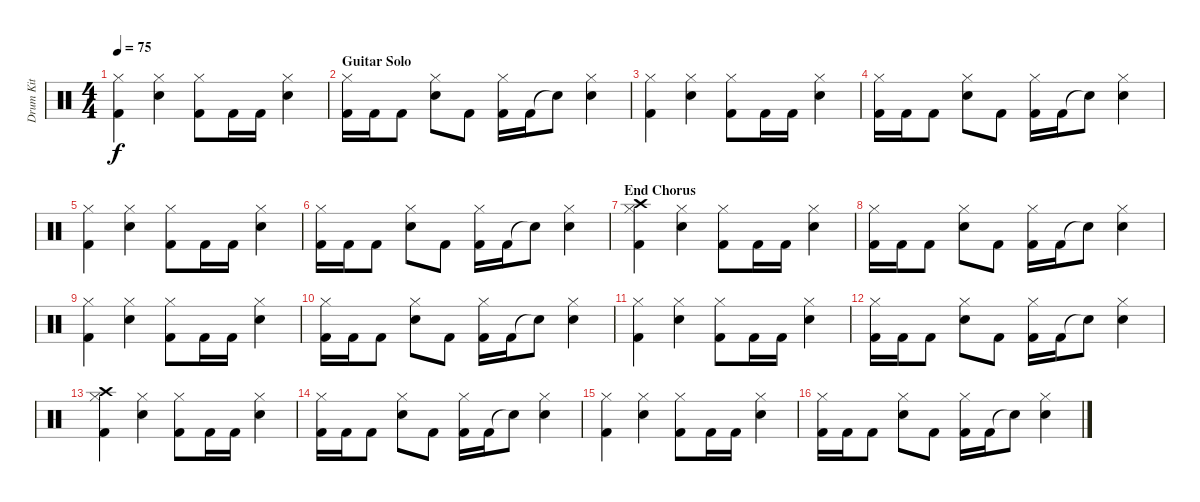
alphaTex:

\track ("Drum Kit" "Drum Kit") {instrument percussion}
\staff {score}
\articulation defaults
\ts (4 4)
\tempo 75
\clef neutral
\ks c
("Kick (hit) 2" "Hi-Hat (closed)").4{dy f} ("Electric Snare (hit)" "Hi-Hat (closed)").4 ("Kick (hit) 2" "Hi-Hat (closed)").8 "Kick (hit) 2".16 "Kick (hit) 2".16 ("Electric Snare (hit)" "Hi-Hat (closed)").4 |
\section ("" "Guitar Solo")
("Kick (hit) 2" "Hi-Hat (closed)").16 "Kick (hit) 2".16 "Kick (hit) 2".8 ("Electric Snare (hit)" "Hi-Hat (closed)").8 "Kick (hit) 2".8 ("Kick (hit) 2" "Hi-Hat (closed)").16 "Kick (hit) 2".16 "Snare (hit)"{t}.8 ("Electric Snare (hit)" "Hi-Hat (closed)").4 |
("Kick (hit) 2" "Hi-Hat (closed)").4 ("Electric Snare (hit)" "Hi-Hat (closed)").4 ("Kick (hit) 2" "Hi-Hat (closed)").8 "Kick (hit) 2".16 "Kick (hit) 2".16 ("Electric Snare (hit)" "Hi-Hat (closed)").4 |
("Kick (hit) 2" "Hi-Hat (closed)").16 "Kick (hit) 2".16 "Kick (hit) 2".8 ("Electric Snare (hit)" "Hi-Hat (closed)").8 "Kick (hit) 2".8 ("Kick (hit) 2" "Hi-Hat (closed)").16 "Kick (hit) 2".16 "Snare (hit)"{t}.8 ("Electric Snare (hit)" "Hi-Hat (closed)").4 |
("Kick (hit) 2" "Hi-Hat (closed)").4 ("Electric Snare (hit)" "Hi-Hat (closed)").4 ("Kick (hit) 2" "Hi-Hat (closed)").8 "Kick (hit) 2".16 "Kick (hit) 2".16 ("Electric Snare (hit)" "Hi-Hat (closed)").4 |
("Kick (hit) 2" "Hi-Hat (closed)").16 "Kick (hit) 2".16 "Kick (hit) 2".8 ("Electric Snare (hit)" "Hi-Hat (closed)").8 "Kick (hit) 2".8 ("Kick (hit) 2" "Hi-Hat (closed)").16 "Kick (hit) 2".16 "Snare (hit)"{t}.8 ("Electric Snare (hit)" "Hi-Hat (closed)").4 |
\section ("" "End Chorus")
("Crash high (hit)" "Kick (hit) 2" "Hi-Hat (closed)").4 ("Electric Snare (hit)" "Hi-Hat (closed)").4 ("Kick (hit) 2" "Hi-Hat (closed)").8 "Kick (hit) 2".16 "Kick (hit) 2".16 ("Electric Snare (hit)" "Hi-Hat (closed)").4 |
("Kick (hit) 2" "Hi-Hat (closed)").16 "Kick (hit) 2".16 "Kick (hit) 2".8 ("Electric Snare (hit)" "Hi-Hat (closed)").8 "Kick (hit) 2".8 ("Kick (hit) 2" "Hi-Hat (closed)").16 "Kick (hit) 2".16 "Snare (hit)"{t}.8 ("Electric Snare (hit)" "Hi-Hat (closed)").4 |
("Kick (hit) 2" "Hi-Hat (closed)").4 ("Electric Snare (hit)" "Hi-Hat (closed)").4 ("Kick (hit) 2" "Hi-Hat (closed)").8 "Kick (hit) 2".16 "Kick (hit) 2".16 ("Electric Snare (hit)" "Hi-Hat (closed)").4 |
("Kick (hit) 2" "Hi-Hat (closed)").16 "Kick (hit) 2".16 "Kick (hit) 2".8 ("Electric Snare (hit)" "Hi-Hat (closed)").8 "Kick (hit) 2".8 ("Kick (hit) 2" "Hi-Hat (closed)").16 "Kick (hit) 2".16 "Snare (hit)"{t}.8 ("Electric Snare (hit)" "Hi-Hat (closed)").4 |
("Kick (hit) 2" "Hi-Hat (closed)").4 ("Electric Snare (hit)" "Hi-Hat (closed)").4 ("Kick (hit) 2" "Hi-Hat (closed)").8 "Kick (hit) 2".16 "Kick (hit) 2".16 ("Electric Snare (hit)" "Hi-Hat (closed)").4 |
("Kick (hit) 2" "Hi-Hat (closed)").16 "Kick (hit) 2".16 "Kick (hit) 2".8 ("Electric Snare (hit)" "Hi-Hat (closed)").8 "Kick (hit) 2".8 ("Kick (hit) 2" "Hi-Hat (closed)").16 "Kick (hit) 2".16 "Snare (hit)"{t}.8 ("Electric Snare (hit)" "Hi-Hat (closed)").4 |
("Crash high (hit)" "Kick (hit) 2" "Hi-Hat (closed)").4 ("Electric Snare (hit)" "Hi-Hat (closed)").4 ("Kick (hit) 2" "Hi-Hat (closed)").8 "Kick (hit) 2".16 "Kick (hit) 2".16 ("Electric Snare (hit)" "Hi-Hat (closed)").4 |
("Kick (hit) 2" "Hi-Hat (closed)").16 "Kick (hit) 2".16 "Kick (hit) 2".8 ("Electric Snare (hit)" "Hi-Hat (closed)").8 "Kick (hit) 2".8 ("Kick (hit) 2" "Hi-Hat (closed)").16 "Kick (hit) 2".16 "Snare (hit)"{t}.8 ("Electric Snare (hit)" "Hi-Hat (closed)").4 |
("Kick (hit) 2" "Hi-Hat (closed)").4 ("Electric Snare (hit)" "Hi-Hat (closed)").4 ("Kick (hit) 2" "Hi-Hat (closed)").8 "Kick (hit) 2".16 "Kick (hit) 2".16 ("Electric Snare (hit)" "Hi-Hat (closed)").4 |
("Kick (hit) 2" "Hi-Hat (closed)").16 "Kick (hit) 2".16 "Kick (hit) 2".8 ("Electric Snare (hit)" "Hi-Hat (closed)").8 "Kick (hit) 2".8 ("Kick (hit) 2" "Hi-Hat (closed)").16 "Kick (hit) 2".16 "Snare (hit)"{t}.8 ("Electric Snare (hit)" "Hi-Hat (closed)").4
